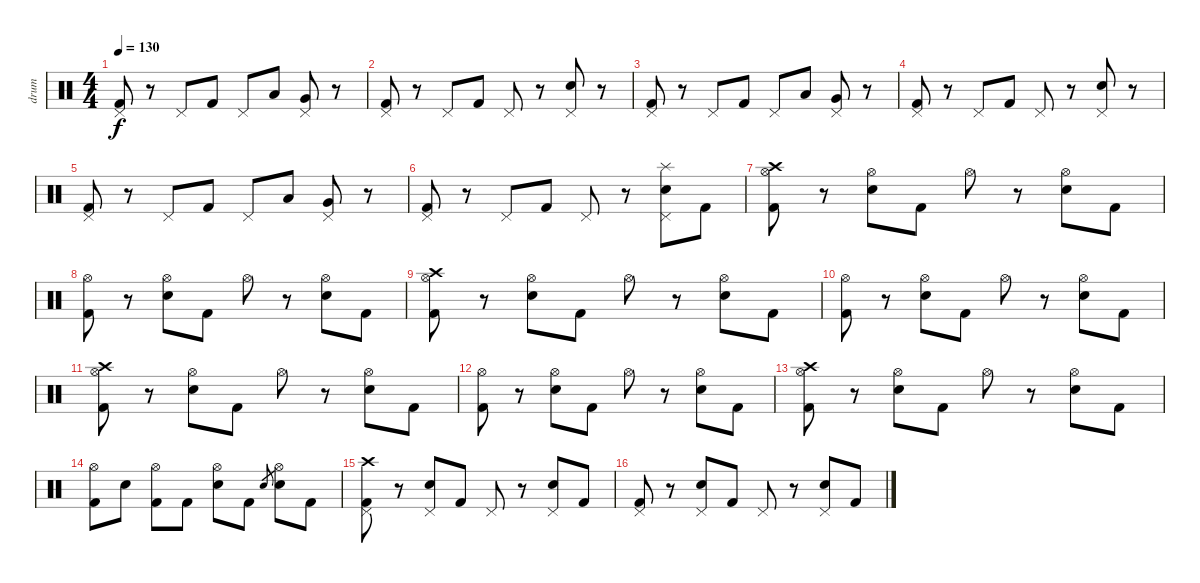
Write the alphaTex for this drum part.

\track ("drum" "drum") {instrument percussion}
\staff {score}
\articulation defaults
\ts (4 4)
\tempo 130
\clef neutral
\ks c
("Pedal Hi-Hat (hit)" "Kick (hit) 2").8{dy f} r.8 "Pedal Hi-Hat (hit)".8 "Kick (hit) 2".8 "Pedal Hi-Hat (hit)".8 "Low Tom (hit)".8 ("Pedal Hi-Hat (hit)" "Very Low Tom (hit)").8 r.8 |
("Pedal Hi-Hat (hit)" "Kick (hit) 2").8 r.8 "Pedal Hi-Hat (hit)".8 "Kick (hit) 2".8 "Pedal Hi-Hat (hit)".8 r.8 ("Pedal Hi-Hat (hit)" "Electric Snare (hit)").8 r.8 |
("Pedal Hi-Hat (hit)" "Kick (hit) 2").8 r.8 "Pedal Hi-Hat (hit)".8 "Kick (hit) 2".8 "Pedal Hi-Hat (hit)".8 "Low Tom (hit)".8 ("Pedal Hi-Hat (hit)" "Very Low Tom (hit)").8 r.8 |
("Pedal Hi-Hat (hit)" "Kick (hit) 2").8 r.8 "Pedal Hi-Hat (hit)".8 "Kick (hit) 2".8 "Pedal Hi-Hat (hit)".8 r.8 ("Pedal Hi-Hat (hit)" "Electric Snare (hit)").8 r.8 |
("Pedal Hi-Hat (hit)" "Kick (hit) 2").8 r.8 "Pedal Hi-Hat (hit)".8 "Kick (hit) 2".8 "Pedal Hi-Hat (hit)".8 "Low Tom (hit)".8 ("Pedal Hi-Hat (hit)" "Very Low Tom (hit)").8 r.8 |
("Pedal Hi-Hat (hit)" "Kick (hit) 2").8 r.8 "Pedal Hi-Hat (hit)".8 "Kick (hit) 2".8 "Pedal Hi-Hat (hit)".8 r.8 ("Splash (hit)" "Pedal Hi-Hat (hit)" "Electric Snare (hit)").8 "Kick (hit) 2".8 |
("Crash high (hit)" "Hi-Hat (open)" "Kick (hit) 2").8 r.8 ("Hi-Hat (open)" "Electric Snare (hit)").8 "Kick (hit) 2".8 "Hi-Hat (open)".8 r.8 ("Hi-Hat (open)" "Electric Snare (hit)").8 "Kick (hit) 2".8 |
("Hi-Hat (open)" "Kick (hit) 2").8 r.8 ("Hi-Hat (open)" "Electric Snare (hit)").8 "Kick (hit) 2".8 "Hi-Hat (open)".8 r.8 ("Hi-Hat (open)" "Electric Snare (hit)").8 "Kick (hit) 2".8 |
("Crash high (hit)" "Hi-Hat (open)" "Kick (hit) 2").8 r.8 ("Hi-Hat (open)" "Electric Snare (hit)").8 "Kick (hit) 2".8 "Hi-Hat (open)".8 r.8 ("Hi-Hat (open)" "Electric Snare (hit)").8 "Kick (hit) 2".8 |
("Hi-Hat (open)" "Kick (hit) 2").8 r.8 ("Hi-Hat (open)" "Electric Snare (hit)").8 "Kick (hit) 2".8 "Hi-Hat (open)".8 r.8 ("Hi-Hat (open)" "Electric Snare (hit)").8 "Kick (hit) 2".8 |
("Crash high (hit)" "Hi-Hat (open)" "Kick (hit) 2").8 r.8 ("Hi-Hat (open)" "Electric Snare (hit)").8 "Kick (hit) 2".8 "Hi-Hat (open)".8 r.8 ("Hi-Hat (open)" "Electric Snare (hit)").8 "Kick (hit) 2".8 |
("Hi-Hat (open)" "Kick (hit) 2").8 r.8 ("Hi-Hat (open)" "Electric Snare (hit)").8 "Kick (hit) 2".8 "Hi-Hat (open)".8 r.8 ("Hi-Hat (open)" "Electric Snare (hit)").8 "Kick (hit) 2".8 |
("Crash high (hit)" "Hi-Hat (open)" "Kick (hit) 2").8 r.8 ("Hi-Hat (open)" "Electric Snare (hit)").8 "Kick (hit) 2".8 "Hi-Hat (open)".8 r.8 ("Hi-Hat (open)" "Electric Snare (hit)").8 "Kick (hit) 2".8 |
("Hi-Hat (open)" "Kick (hit) 2").8 "Electric Snare (hit)".8 ("Hi-Hat (open)" "Kick (hit) 2").8 "Kick (hit) 2".8 ("Hi-Hat (open)" "Electric Snare (hit)").8 "Kick (hit) 2".8 "Electric Snare (hit)".8{gr} ("Hi-Hat (open)" "Electric Snare (hit)").8 "Kick (hit) 2".8 |
("Crash high (hit)" "Pedal Hi-Hat (hit)" "Kick (hit) 2").8 r.8 ("Pedal Hi-Hat (hit)" "Electric Snare (hit)").8 "Kick (hit) 2".8 "Pedal Hi-Hat (hit)".8 r.8 ("Pedal Hi-Hat (hit)" "Electric Snare (hit)").8 "Kick (hit) 2".8 |
("Pedal Hi-Hat (hit)" "Kick (hit) 2").8 r.8 ("Pedal Hi-Hat (hit)" "Electric Snare (hit)").8 "Kick (hit) 2".8 "Pedal Hi-Hat (hit)".8 r.8 ("Pedal Hi-Hat (hit)" "Electric Snare (hit)").8 "Kick (hit) 2".8
